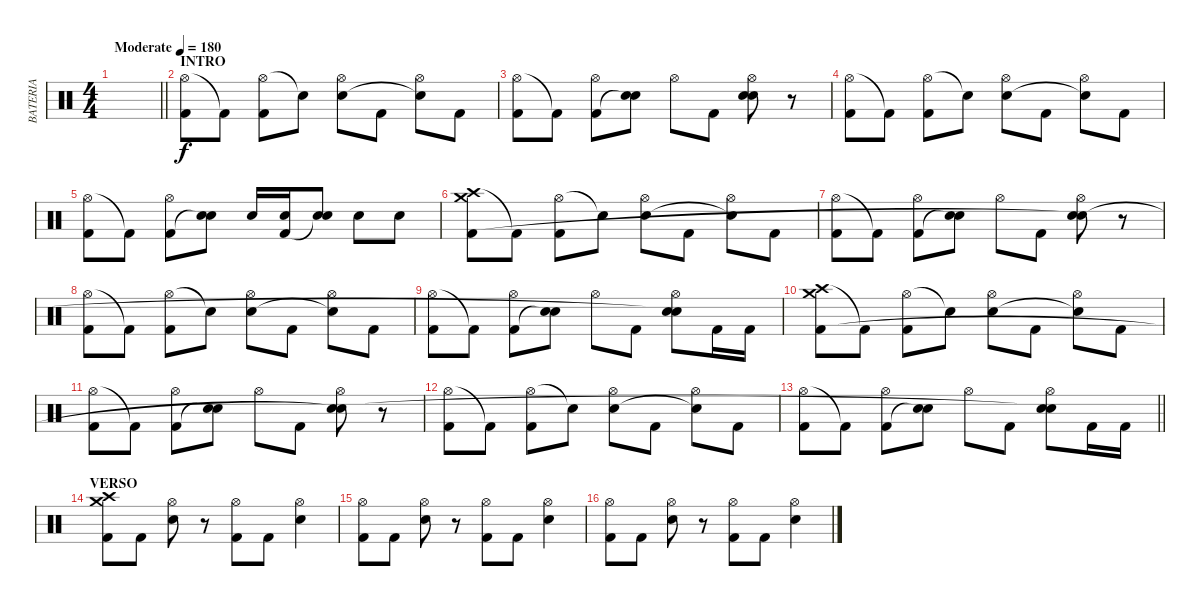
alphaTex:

\track ("BATERIA" "BATERIA") {instrument percussion}
\staff {score}
\articulation defaults
\ts (4 4)
\tempo (180 "Moderate")
\clef neutral
\barLineRight lightlight
\ks c
|
\section ("" "INTRO")
("Hi-Hat (open)" "Kick (hit) 2").8 "Kick (hit) 2"{t}.8 ("Hi-Hat (open)" "Kick (hit) 2").8 "Snare (hit)"{t}.8 ("Hi-Hat (open)" "Electric Snare (hit)").8 "Kick (hit) 2".8 ("Hi-Hat (open)" "Snare (hit)"{t}).8 "Kick (hit) 2".8 |
("Hi-Hat (open)" "Kick (hit) 2").8 "Kick (hit) 2"{t}.8 ("Hi-Hat (open)" "Kick (hit) 2").8 ("Electric Snare (hit)" "Snare (hit)"{t}).8 "Hi-Hat (open)".8 "Kick (hit) 2".8 ("Hi-Hat (open)" "Electric Snare (hit)" "Snare (hit)").8 r.8 |
("Hi-Hat (open)" "Kick (hit) 2").8 "Kick (hit) 2"{t}.8 ("Hi-Hat (open)" "Kick (hit) 2").8 "Snare (hit)"{t}.8 ("Hi-Hat (open)" "Electric Snare (hit)").8 "Kick (hit) 2".8 ("Hi-Hat (open)" "Snare (hit)"{t}).8 "Kick (hit) 2".8 |
("Hi-Hat (open)" "Kick (hit) 2").8 "Kick (hit) 2"{t}.8 ("Hi-Hat (open)" "Kick (hit) 2").8 ("Electric Snare (hit)" "Snare (hit)"{t}).8 "Electric Snare (hit)".16 ("Electric Snare (hit)" "Kick (hit) 2").16 ("Electric Snare (hit)" "Snare (hit)"{t}).8 "Electric Snare (hit)".8 "Electric Snare (hit)".8 |
("Crash high (hit)" "Crash medium (hit)" "Kick (hit) 2").8 "Kick (hit) 2"{t}.8 ("Hi-Hat (open)" "Kick (hit) 2").8 "Snare (hit)"{t}.8 ("Hi-Hat (open)" "Electric Snare (hit)").8 "Kick (hit) 2".8 ("Hi-Hat (open)" "Snare (hit)"{t}).8 "Kick (hit) 2".8 |
("Hi-Hat (open)" "Kick (hit) 2").8 "Kick (hit) 2"{t}.8 ("Hi-Hat (open)" "Kick (hit) 2").8 ("Electric Snare (hit)" "Snare (hit)"{t}).8 "Hi-Hat (open)".8 "Kick (hit) 2".8 ("Hi-Hat (open)" "Electric Snare (hit)" "Snare (hit)"{t}).8 r.8 |
("Hi-Hat (open)" "Kick (hit) 2").8 "Kick (hit) 2"{t}.8 ("Hi-Hat (open)" "Kick (hit) 2").8 "Snare (hit)"{t}.8 ("Hi-Hat (open)" "Electric Snare (hit)").8 "Kick (hit) 2".8 ("Hi-Hat (open)" "Snare (hit)"{t}).8 "Kick (hit) 2".8 |
("Hi-Hat (open)" "Kick (hit) 2").8 "Kick (hit) 2"{t}.8 ("Hi-Hat (open)" "Kick (hit) 2").8 ("Electric Snare (hit)" "Snare (hit)"{t}).8 "Hi-Hat (open)".8 "Kick (hit) 2".8 ("Hi-Hat (open)" "Electric Snare (hit)" "Snare (hit)"{t}).8 "Kick (hit) 2".16 "Kick (hit) 2".16 |
("Crash high (hit)" "Crash medium (hit)" "Kick (hit) 2").8 "Kick (hit) 2"{t}.8 ("Hi-Hat (open)" "Kick (hit) 2").8 "Snare (hit)"{t}.8 ("Hi-Hat (open)" "Electric Snare (hit)").8 "Kick (hit) 2".8 ("Hi-Hat (open)" "Snare (hit)"{t}).8 "Kick (hit) 2".8 |
("Hi-Hat (open)" "Kick (hit) 2").8 "Kick (hit) 2"{t}.8 ("Hi-Hat (open)" "Kick (hit) 2").8 ("Electric Snare (hit)" "Snare (hit)"{t}).8 "Hi-Hat (open)".8 "Kick (hit) 2".8 ("Hi-Hat (open)" "Electric Snare (hit)" "Snare (hit)"{t}).8 r.8 |
("Hi-Hat (open)" "Kick (hit) 2").8 "Kick (hit) 2"{t}.8 ("Hi-Hat (open)" "Kick (hit) 2").8 "Snare (hit)"{t}.8 ("Hi-Hat (open)" "Electric Snare (hit)").8 "Kick (hit) 2".8 ("Hi-Hat (open)" "Snare (hit)"{t}).8 "Kick (hit) 2".8 |
\barLineRight lightlight
("Hi-Hat (open)" "Kick (hit) 2").8 "Kick (hit) 2"{t}.8 ("Hi-Hat (open)" "Kick (hit) 2").8 ("Electric Snare (hit)" "Snare (hit)"{t}).8 "Hi-Hat (open)".8 "Kick (hit) 2".8 ("Hi-Hat (open)" "Electric Snare (hit)" "Snare (hit)"{t}).8 "Kick (hit) 2".16 "Kick (hit) 2".16 |
\section ("" "VERSO")
("Crash high (hit)" "Crash medium (hit)" "Kick (hit) 2").8 "Kick (hit) 2".8 ("Hi-Hat (open)" "Electric Snare (hit)").8 r.8 ("Hi-Hat (open)" "Kick (hit) 2").8 "Kick (hit) 2".8 ("Hi-Hat (open)" "Electric Snare (hit)").4 |
("Hi-Hat (open)" "Kick (hit) 2").8 "Kick (hit) 2".8 ("Hi-Hat (open)" "Electric Snare (hit)").8 r.8 ("Hi-Hat (open)" "Kick (hit) 2").8 "Kick (hit) 2".8 ("Hi-Hat (open)" "Electric Snare (hit)").4 |
("Hi-Hat (open)" "Kick (hit) 2").8 "Kick (hit) 2".8 ("Hi-Hat (open)" "Electric Snare (hit)").8 r.8 ("Hi-Hat (open)" "Kick (hit) 2").8 "Kick (hit) 2".8 ("Hi-Hat (open)" "Electric Snare (hit)").4
